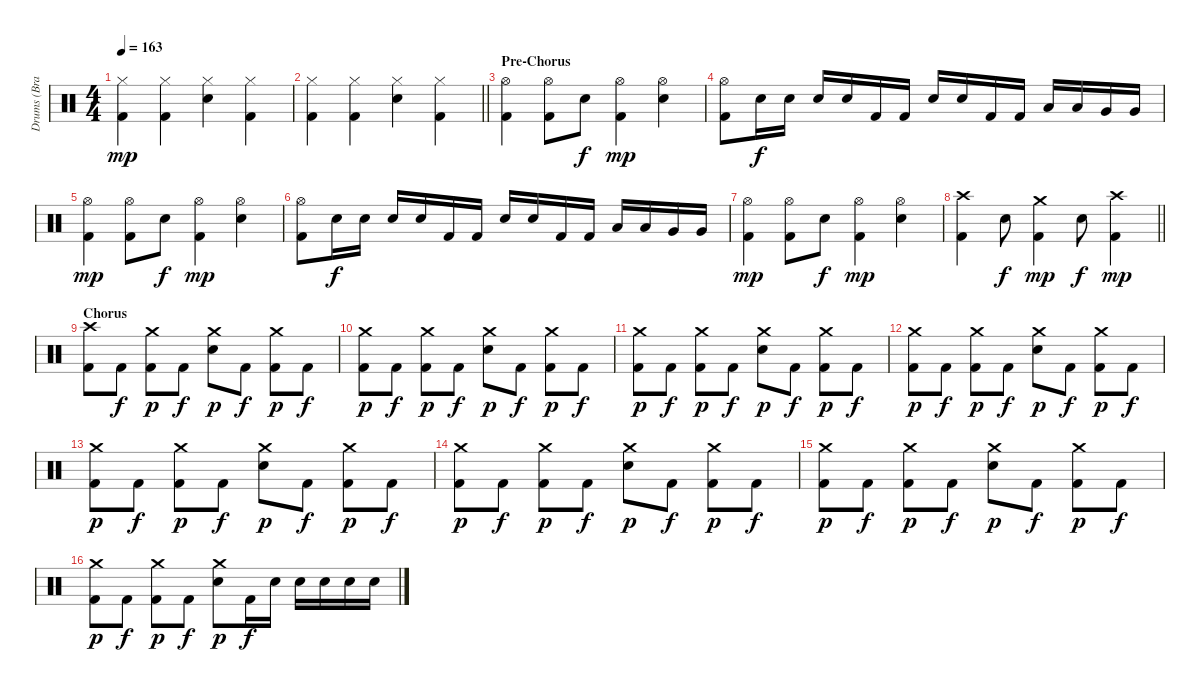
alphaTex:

\track ("Drums (Brandon Saller)" "Drums (Bra") {instrument percussion}
\staff {score}
\articulation defaults
\ts (4 4)
\tempo 163
\clef neutral
\ks c
("Hi-Hat (closed)" "Kick (hit) 2").4{dy mp} ("Hi-Hat (closed)" "Kick (hit) 2").4 ("Hi-Hat (closed)" "Electric Snare (hit)").4 ("Hi-Hat (closed)" "Kick (hit) 2").4 |
\barLineRight lightlight
("Hi-Hat (closed)" "Kick (hit) 2").4 ("Hi-Hat (closed)" "Kick (hit) 2").4 ("Hi-Hat (closed)" "Electric Snare (hit)").4 ("Hi-Hat (closed)" "Kick (hit) 2").4 |
\section ("" "Pre-Chorus")
("Hi-Hat (open)" "Kick (hit) 2").4 ("Hi-Hat (open)" "Kick (hit) 2").8 "Electric Snare (hit)".8{dy f} ("Hi-Hat (open)" "Kick (hit) 2").4{dy mp} ("Hi-Hat (open)" "Electric Snare (hit)").4 |
("Hi-Hat (open)" "Kick (hit) 2").8 "Electric Snare (hit)".16{dy f} "Electric Snare (hit)".16 "Electric Snare (hit)".16 "Electric Snare (hit)".16 "Kick (hit) 2".16 "Kick (hit) 2".16 "Electric Snare (hit)".16 "Electric Snare (hit)".16 "Kick (hit) 2".16 "Kick (hit) 2".16 "Low Tom (hit)".16 "Low Tom (hit)".16 "Very Low Tom (hit)".16 "Very Low Tom (hit)".16 |
("Hi-Hat (open)" "Kick (hit) 2").4{dy mp} ("Hi-Hat (open)" "Kick (hit) 2").8 "Electric Snare (hit)".8{dy f} ("Hi-Hat (open)" "Kick (hit) 2").4{dy mp} ("Hi-Hat (open)" "Electric Snare (hit)").4 |
("Hi-Hat (open)" "Kick (hit) 2").8 "Electric Snare (hit)".16{dy f} "Electric Snare (hit)".16 "Electric Snare (hit)".16 "Electric Snare (hit)".16 "Kick (hit) 2".16 "Kick (hit) 2".16 "Electric Snare (hit)".16 "Electric Snare (hit)".16 "Kick (hit) 2".16 "Kick (hit) 2".16 "Low Tom (hit)".16 "Low Tom (hit)".16 "Very Low Tom (hit)".16 "Very Low Tom (hit)".16 |
("Hi-Hat (open)" "Kick (hit) 2").4{dy mp} ("Hi-Hat (open)" "Kick (hit) 2").8 "Electric Snare (hit)".8{dy f} ("Hi-Hat (open)" "Kick (hit) 2").4{dy mp} ("Hi-Hat (open)" "Electric Snare (hit)").4 |
\barLineRight lightlight
("Crash high (hit)" "Kick (hit) 2").4 "Electric Snare (hit)".8{dy f} ("Crash medium (hit)" "Kick (hit) 2").4{dy mp} "Electric Snare (hit)".8{dy f} ("Crash high (hit)" "Kick (hit) 2").4{dy mp} |
\section ("" "Chorus")
("Crash high (hit)" "Kick (hit) 2").8 "Kick (hit) 2".8{dy f} ("Crash medium (hit)" "Kick (hit) 2").8{dy p} "Kick (hit) 2".8{dy f} ("Crash medium (hit)" "Electric Snare (hit)").8{dy p} "Kick (hit) 2".8{dy f} ("Crash medium (hit)" "Kick (hit) 2").8{dy p} "Kick (hit) 2".8{dy f} |
("Crash medium (hit)" "Kick (hit) 2").8{dy p} "Kick (hit) 2".8{dy f} ("Crash medium (hit)" "Kick (hit) 2").8{dy p} "Kick (hit) 2".8{dy f} ("Crash medium (hit)" "Electric Snare (hit)").8{dy p} "Kick (hit) 2".8{dy f} ("Crash medium (hit)" "Kick (hit) 2").8{dy p} "Kick (hit) 2".8{dy f} |
("Crash medium (hit)" "Kick (hit) 2").8{dy p} "Kick (hit) 2".8{dy f} ("Crash medium (hit)" "Kick (hit) 2").8{dy p} "Kick (hit) 2".8{dy f} ("Crash medium (hit)" "Electric Snare (hit)").8{dy p} "Kick (hit) 2".8{dy f} ("Crash medium (hit)" "Kick (hit) 2").8{dy p} "Kick (hit) 2".8{dy f} |
("Crash medium (hit)" "Kick (hit) 2").8{dy p} "Kick (hit) 2".8{dy f} ("Crash medium (hit)" "Kick (hit) 2").8{dy p} "Kick (hit) 2".8{dy f} ("Crash medium (hit)" "Electric Snare (hit)").8{dy p} "Kick (hit) 2".8{dy f} ("Crash medium (hit)" "Kick (hit) 2").8{dy p} "Kick (hit) 2".8{dy f} |
("Crash medium (hit)" "Kick (hit) 2").8{dy p} "Kick (hit) 2".8{dy f} ("Crash medium (hit)" "Kick (hit) 2").8{dy p} "Kick (hit) 2".8{dy f} ("Crash medium (hit)" "Electric Snare (hit)").8{dy p} "Kick (hit) 2".8{dy f} ("Crash medium (hit)" "Kick (hit) 2").8{dy p} "Kick (hit) 2".8{dy f} |
("Crash medium (hit)" "Kick (hit) 2").8{dy p} "Kick (hit) 2".8{dy f} ("Crash medium (hit)" "Kick (hit) 2").8{dy p} "Kick (hit) 2".8{dy f} ("Crash medium (hit)" "Electric Snare (hit)").8{dy p} "Kick (hit) 2".8{dy f} ("Crash medium (hit)" "Kick (hit) 2").8{dy p} "Kick (hit) 2".8{dy f} |
("Crash medium (hit)" "Kick (hit) 2").8{dy p} "Kick (hit) 2".8{dy f} ("Crash medium (hit)" "Kick (hit) 2").8{dy p} "Kick (hit) 2".8{dy f} ("Crash medium (hit)" "Electric Snare (hit)").8{dy p} "Kick (hit) 2".8{dy f} ("Crash medium (hit)" "Kick (hit) 2").8{dy p} "Kick (hit) 2".8{dy f} |
("Crash medium (hit)" "Kick (hit) 2").8{dy p} "Kick (hit) 2".8{dy f} ("Crash medium (hit)" "Kick (hit) 2").8{dy p} "Kick (hit) 2".8{dy f} ("Crash medium (hit)" "Electric Snare (hit)").8{dy p} "Kick (hit) 2".16{dy f} "Electric Snare (hit)".16 "Electric Snare (hit)".16 "Electric Snare (hit)".16 "Electric Snare (hit)".16 "Electric Snare (hit)".16
